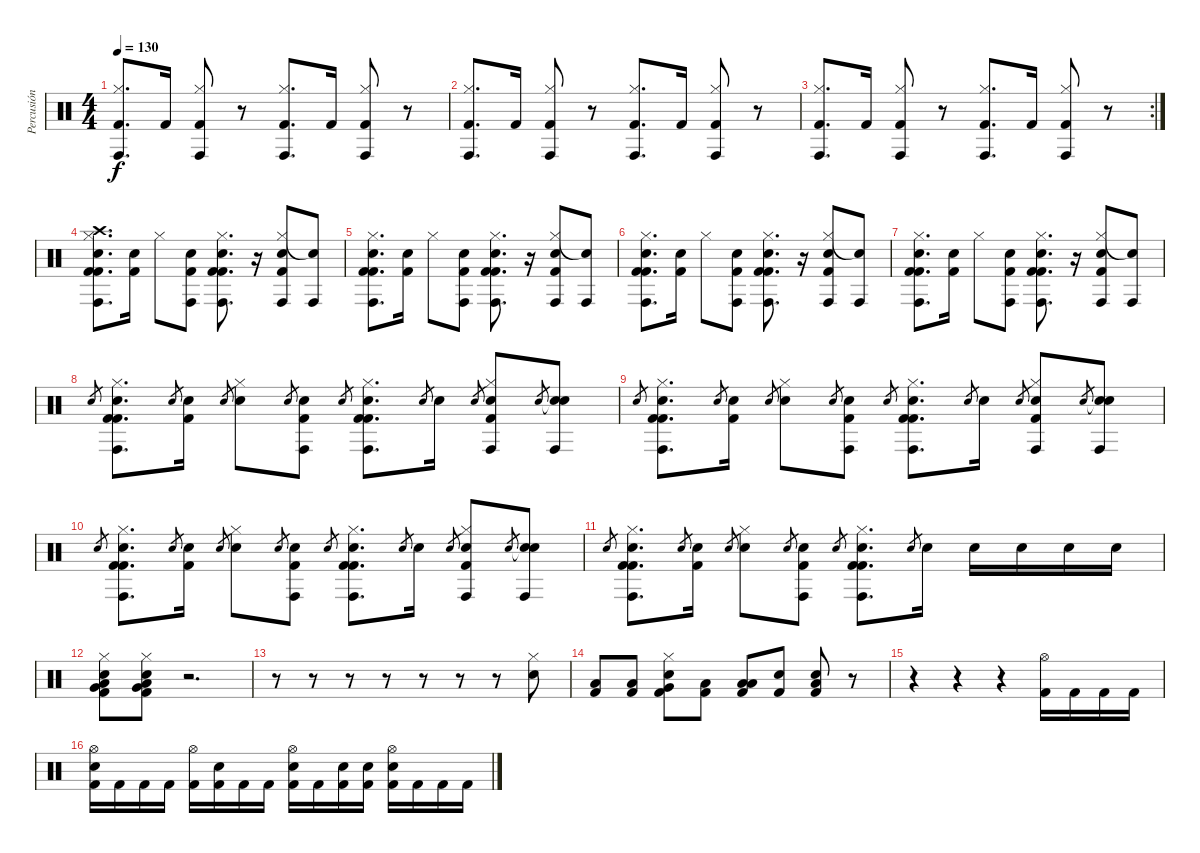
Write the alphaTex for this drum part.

\track ("Percusión" "Percusión") {instrument percussion}
\staff {score}
\articulation defaults
\ts (4 4)
\tempo 130
\clef neutral
\ks c
("Hi-Hat (closed)" "Kick (hit) 2" "Conga high (hit)").8{d dy f} "Kick (hit) 2".16 ("Hi-Hat (closed)" "Kick (hit) 2" "Conga high (hit)").8 r.8 ("Hi-Hat (closed)" "Kick (hit) 2" "Conga high (hit)").8{d} "Kick (hit) 2".16 ("Hi-Hat (closed)" "Kick (hit) 2" "Conga high (hit)").8 r.8 |
("Hi-Hat (closed)" "Kick (hit) 2" "Conga high (hit)").8{d} "Kick (hit) 2".16 ("Hi-Hat (closed)" "Kick (hit) 2" "Conga high (hit)").8 r.8 ("Hi-Hat (closed)" "Kick (hit) 2" "Conga high (hit)").8{d} "Kick (hit) 2".16 ("Hi-Hat (closed)" "Kick (hit) 2" "Conga high (hit)").8 r.8 |
\rc 2
("Hi-Hat (closed)" "Kick (hit) 2" "Conga high (hit)").8{d} "Kick (hit) 2".16 ("Hi-Hat (closed)" "Kick (hit) 2" "Conga high (hit)").8 r.8 ("Hi-Hat (closed)" "Kick (hit) 2" "Conga high (hit)").8{d} "Kick (hit) 2".16 ("Hi-Hat (closed)" "Kick (hit) 2" "Conga high (hit)").8 r.8 |
("Kick (hit) 2" "Crash high (hit)" "Hi-Hat (closed)" "Kick (hit) 2" "Conga high (hit)" "Electric Snare (hit)").8{d volume 10} ("Kick (hit) 2" "Electric Snare (hit)").16 "Hi-Hat (closed)".8 ("Kick (hit) 2" "Conga high (hit)" "Electric Snare (hit)").8 ("Kick (hit) 2" "Hi-Hat (closed)" "Kick (hit) 2" "Conga high (hit)" "Electric Snare (hit)").8{d} r.16 ("Hi-Hat (closed)" "Kick (hit) 2" "Conga high (hit)" "Electric Snare (hit)").8 ("Snare (hit)"{t} "Conga high (hit)").8 |
("Kick (hit) 2" "Hi-Hat (closed)" "Kick (hit) 2" "Conga high (hit)" "Electric Snare (hit)").8{d} ("Kick (hit) 2" "Electric Snare (hit)").16 "Hi-Hat (closed)".8 ("Kick (hit) 2" "Conga high (hit)" "Electric Snare (hit)").8 ("Kick (hit) 2" "Hi-Hat (closed)" "Kick (hit) 2" "Conga high (hit)" "Electric Snare (hit)").8{d} r.16 ("Hi-Hat (closed)" "Kick (hit) 2" "Conga high (hit)" "Electric Snare (hit)").8 ("Snare (hit)"{t} "Conga high (hit)").8 |
("Kick (hit) 2" "Hi-Hat (closed)" "Kick (hit) 2" "Conga high (hit)" "Electric Snare (hit)").8{d} ("Kick (hit) 2" "Electric Snare (hit)").16 "Hi-Hat (closed)".8 ("Kick (hit) 2" "Conga high (hit)" "Electric Snare (hit)").8 ("Kick (hit) 2" "Hi-Hat (closed)" "Kick (hit) 2" "Conga high (hit)" "Electric Snare (hit)").8{d} r.16 ("Hi-Hat (closed)" "Kick (hit) 2" "Conga high (hit)" "Electric Snare (hit)").8 ("Snare (hit)"{t} "Conga high (hit)").8 |
("Kick (hit) 2" "Hi-Hat (closed)" "Kick (hit) 2" "Conga high (hit)" "Electric Snare (hit)").8{d} ("Kick (hit) 2" "Electric Snare (hit)").16 "Hi-Hat (closed)".8 ("Kick (hit) 2" "Conga high (hit)" "Electric Snare (hit)").8 ("Kick (hit) 2" "Hi-Hat (closed)" "Kick (hit) 2" "Conga high (hit)" "Electric Snare (hit)").8{d} r.16 ("Hi-Hat (closed)" "Kick (hit) 2" "Conga high (hit)" "Electric Snare (hit)").8 ("Snare (hit)"{t} "Conga high (hit)").8 |
"Electric Snare (hit)".8{gr} ("Kick (hit) 2" "Hi-Hat (closed)" "Kick (hit) 2" "Conga high (hit)" "Electric Snare (hit)").8{d} "Electric Snare (hit)".8{gr} ("Kick (hit) 2" "Electric Snare (hit)").16 "Electric Snare (hit)".8{gr} ("Hi-Hat (closed)" "Electric Snare (hit)").8 "Electric Snare (hit)".8{gr} ("Kick (hit) 2" "Conga high (hit)" "Electric Snare (hit)").8 "Electric Snare (hit)".8{gr} ("Kick (hit) 2" "Hi-Hat (closed)" "Kick (hit) 2" "Conga high (hit)" "Electric Snare (hit)").8{d} "Electric Snare (hit)".8{gr} "Electric Snare (hit)".16 "Electric Snare (hit)".8{gr} ("Hi-Hat (closed)" "Kick (hit) 2" "Conga high (hit)" "Electric Snare (hit)").8 "Electric Snare (hit)".8{gr} ("Snare (hit)"{t} "Conga high (hit)" "Electric Snare (hit)").8 |
"Electric Snare (hit)".8{gr} ("Kick (hit) 2" "Hi-Hat (closed)" "Kick (hit) 2" "Conga high (hit)" "Electric Snare (hit)").8{d} "Electric Snare (hit)".8{gr} ("Kick (hit) 2" "Electric Snare (hit)").16 "Electric Snare (hit)".8{gr} ("Hi-Hat (closed)" "Electric Snare (hit)").8 "Electric Snare (hit)".8{gr} ("Kick (hit) 2" "Conga high (hit)" "Electric Snare (hit)").8 "Electric Snare (hit)".8{gr} ("Kick (hit) 2" "Hi-Hat (closed)" "Kick (hit) 2" "Conga high (hit)" "Electric Snare (hit)").8{d} "Electric Snare (hit)".8{gr} "Electric Snare (hit)".16 "Electric Snare (hit)".8{gr} ("Hi-Hat (closed)" "Kick (hit) 2" "Conga high (hit)" "Electric Snare (hit)").8 "Electric Snare (hit)".8{gr} ("Snare (hit)"{t} "Conga high (hit)" "Electric Snare (hit)").8 |
"Electric Snare (hit)".8{gr} ("Kick (hit) 2" "Hi-Hat (closed)" "Kick (hit) 2" "Conga high (hit)" "Electric Snare (hit)").8{d} "Electric Snare (hit)".8{gr} ("Kick (hit) 2" "Electric Snare (hit)").16 "Electric Snare (hit)".8{gr} ("Hi-Hat (closed)" "Electric Snare (hit)").8 "Electric Snare (hit)".8{gr} ("Kick (hit) 2" "Conga high (hit)" "Electric Snare (hit)").8 "Electric Snare (hit)".8{gr} ("Kick (hit) 2" "Hi-Hat (closed)" "Kick (hit) 2" "Conga high (hit)" "Electric Snare (hit)").8{d} "Electric Snare (hit)".8{gr} "Electric Snare (hit)".16 "Electric Snare (hit)".8{gr} ("Hi-Hat (closed)" "Kick (hit) 2" "Conga high (hit)" "Electric Snare (hit)").8 "Electric Snare (hit)".8{gr} ("Snare (hit)"{t} "Conga high (hit)" "Electric Snare (hit)").8 |
"Electric Snare (hit)".8{gr} ("Kick (hit) 2" "Hi-Hat (closed)" "Kick (hit) 2" "Conga high (hit)" "Electric Snare (hit)").8{d} "Electric Snare (hit)".8{gr} ("Kick (hit) 2" "Electric Snare (hit)").16 "Electric Snare (hit)".8{gr} ("Hi-Hat (closed)" "Electric Snare (hit)").8 "Electric Snare (hit)".8{gr} ("Kick (hit) 2" "Conga high (hit)" "Electric Snare (hit)").8 "Electric Snare (hit)".8{gr} ("Kick (hit) 2" "Hi-Hat (closed)" "Kick (hit) 2" "Conga high (hit)" "Electric Snare (hit)").8{d} "Electric Snare (hit)".8{gr} "Electric Snare (hit)".16 "Electric Snare (hit)".16 "Electric Snare (hit)".16 "Electric Snare (hit)".16 "Electric Snare (hit)".16 |
("Very Low Tom (hit)" "Low Floor Tom (hit)" "Kick (hit) 2" "Hi-Hat (closed)" "Electric Snare (hit)").8 ("Very Low Tom (hit)" "Low Floor Tom (hit)" "Kick (hit) 2" "Hi-Hat (closed)" "Electric Snare (hit)").8 r.2{d} |
r.8 r.8 r.8 r.8 r.8 r.8 r.8 ("Hi-Hat (closed)" "Electric Snare (hit)").8 |
("Low Floor Tom (hit)" "Kick (hit) 2").8 ("Low Floor Tom (hit)" "Kick (hit) 2").8 ("Electric Snare (hit)" "Hi-Hat (closed)" "Very Low Tom (hit)" "Kick (hit) 2").8 ("Low Floor Tom (hit)" "Kick (hit) 2").8 ("Low Floor Tom (hit)" "Low Floor Tom (hit)" "Kick (hit) 2").8 ("Electric Snare (hit)" "Kick (hit) 2").8 ("Low Floor Tom (hit)" "Electric Snare (hit)" "Kick (hit) 2").8 r.8 |
r.4 r.4 r.4 ("Hi-Hat (open)" "Kick (hit) 2").16 "Kick (hit) 2".16 "Kick (hit) 2".16 "Kick (hit) 2".16 |
("Hi-Hat (open)" "Electric Snare (hit)" "Kick (hit) 2").16 "Kick (hit) 2".16 "Kick (hit) 2".16 "Kick (hit) 2".16 ("Hi-Hat (open)" "Kick (hit) 2").16 ("Electric Snare (hit)" "Kick (hit) 2").16 "Kick (hit) 2".16 "Kick (hit) 2".16 ("Hi-Hat (open)" "Electric Snare (hit)" "Kick (hit) 2").16 "Kick (hit) 2".16 ("Electric Snare (hit)" "Kick (hit) 2").16 ("Electric Snare (hit)" "Kick (hit) 2").16 ("Hi-Hat (open)" "Electric Snare (hit)" "Kick (hit) 2").16 "Kick (hit) 2".16 "Kick (hit) 2".16 "Kick (hit) 2".16
